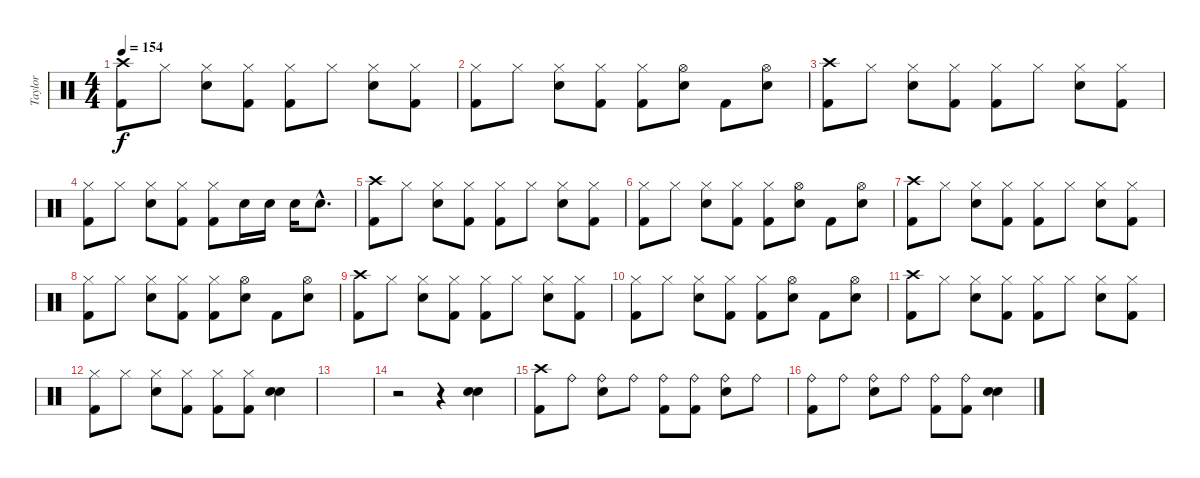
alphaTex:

\track ("Taylor" "Taylor") {instrument percussion}
\staff {score}
\articulation defaults
\ts (4 4)
\tempo 154
\clef neutral
\ks c
("Crash high (hit)" "Kick (hit) 2").8{dy f} "Hi-Hat (closed)".8 ("Hi-Hat (closed)" "Snare (hit) 2").8 ("Hi-Hat (closed)" "Kick (hit) 2").8 ("Hi-Hat (closed)" "Kick (hit) 2").8 "Hi-Hat (closed)".8 ("Hi-Hat (closed)" "Snare (hit) 2").8 ("Hi-Hat (closed)" "Kick (hit) 2").8 |
("Hi-Hat (closed)" "Kick (hit) 2").8 "Hi-Hat (closed)".8 ("Hi-Hat (closed)" "Snare (hit) 2").8 ("Hi-Hat (closed)" "Kick (hit) 2").8 ("Hi-Hat (closed)" "Kick (hit) 2").8 ("Hi-Hat (open)" "Snare (hit) 2").8 "Kick (hit) 2".8 ("Hi-Hat (open)" "Snare (hit) 2").8 |
("Crash high (hit)" "Kick (hit) 2").8 "Hi-Hat (closed)".8 ("Hi-Hat (closed)" "Snare (hit) 2").8 ("Hi-Hat (closed)" "Kick (hit) 2").8 ("Hi-Hat (closed)" "Kick (hit) 2").8 "Hi-Hat (closed)".8 ("Hi-Hat (closed)" "Snare (hit) 2").8 ("Hi-Hat (closed)" "Kick (hit) 2").8 |
("Hi-Hat (closed)" "Kick (hit) 2").8 "Hi-Hat (closed)".8 ("Hi-Hat (closed)" "Snare (hit) 2").8 ("Hi-Hat (closed)" "Kick (hit) 2").8 ("Hi-Hat (closed)" "Kick (hit) 2").8 "Snare (hit) 2".16 "Snare (hit) 2".16 "Snare (hit) 2".16 "Snare (hit) 2"{hac}.8{d} |
("Crash high (hit)" "Kick (hit) 2").8 "Hi-Hat (closed)".8 ("Hi-Hat (closed)" "Snare (hit) 2").8 ("Hi-Hat (closed)" "Kick (hit) 2").8 ("Hi-Hat (closed)" "Kick (hit) 2").8 "Hi-Hat (closed)".8 ("Hi-Hat (closed)" "Snare (hit) 2").8 ("Hi-Hat (closed)" "Kick (hit) 2").8 |
("Hi-Hat (closed)" "Kick (hit) 2").8 "Hi-Hat (closed)".8 ("Hi-Hat (closed)" "Snare (hit) 2").8 ("Hi-Hat (closed)" "Kick (hit) 2").8 ("Hi-Hat (closed)" "Kick (hit) 2").8 ("Hi-Hat (open)" "Snare (hit) 2").8 "Kick (hit) 2".8 ("Hi-Hat (open)" "Snare (hit) 2").8 |
("Crash high (hit)" "Kick (hit) 2").8 "Hi-Hat (closed)".8 ("Hi-Hat (closed)" "Snare (hit) 2").8 ("Hi-Hat (closed)" "Kick (hit) 2").8 ("Hi-Hat (closed)" "Kick (hit) 2").8 "Hi-Hat (closed)".8 ("Hi-Hat (closed)" "Snare (hit) 2").8 ("Hi-Hat (closed)" "Kick (hit) 2").8 |
("Hi-Hat (closed)" "Kick (hit) 2").8 "Hi-Hat (closed)".8 ("Hi-Hat (closed)" "Snare (hit) 2").8 ("Hi-Hat (closed)" "Kick (hit) 2").8 ("Hi-Hat (closed)" "Kick (hit) 2").8 ("Hi-Hat (open)" "Snare (hit) 2").8 "Kick (hit) 2".8 ("Hi-Hat (open)" "Snare (hit) 2").8 |
("Crash high (hit)" "Kick (hit) 2").8 "Hi-Hat (closed)".8 ("Hi-Hat (closed)" "Snare (hit) 2").8 ("Hi-Hat (closed)" "Kick (hit) 2").8 ("Hi-Hat (closed)" "Kick (hit) 2").8 "Hi-Hat (closed)".8 ("Hi-Hat (closed)" "Snare (hit) 2").8 ("Hi-Hat (closed)" "Kick (hit) 2").8 |
("Hi-Hat (closed)" "Kick (hit) 2").8 "Hi-Hat (closed)".8 ("Hi-Hat (closed)" "Snare (hit) 2").8 ("Hi-Hat (closed)" "Kick (hit) 2").8 ("Hi-Hat (closed)" "Kick (hit) 2").8 ("Hi-Hat (open)" "Snare (hit) 2").8 "Kick (hit) 2".8 ("Hi-Hat (open)" "Snare (hit) 2").8 |
("Crash high (hit)" "Kick (hit) 2").8 "Hi-Hat (closed)".8 ("Hi-Hat (closed)" "Snare (hit) 2").8 ("Hi-Hat (closed)" "Kick (hit) 2").8 ("Hi-Hat (closed)" "Kick (hit) 2").8 "Hi-Hat (closed)".8 ("Hi-Hat (closed)" "Snare (hit) 2").8 ("Hi-Hat (closed)" "Kick (hit) 2").8 |
("Hi-Hat (closed)" "Kick (hit) 2").8 "Hi-Hat (closed)".8 ("Hi-Hat (closed)" "Snare (hit) 2").8 ("Hi-Hat (closed)" "Kick (hit) 2").8 ("Hi-Hat (closed)" "Kick (hit) 2").8 ("Hi-Hat (closed)" "Kick (hit) 2").8 ("Snare (hit) 2" "Snare (hit) 2").4{bd 240} |
|
r.2 r.4 ("Snare (hit) 2" "Snare (hit) 2").4 |
("Crash high (hit)" "Kick (hit) 2").8 "Ride (bell)".8 ("Ride (bell)" "Snare (hit) 2").8 "Ride (bell)".8 ("Ride (bell)" "Kick (hit) 2").8 ("Ride (bell)" "Kick (hit) 2").8 ("Ride (bell)" "Snare (hit) 2").8 "Ride (bell)".8 |
("Ride (bell)" "Kick (hit) 2").8 "Ride (bell)".8 ("Ride (bell)" "Snare (hit) 2").8 "Ride (bell)".8 ("Ride (bell)" "Kick (hit) 2").8 ("Ride (bell)" "Kick (hit) 2").8 ("Snare (hit) 2" "Snare (hit) 2").4
